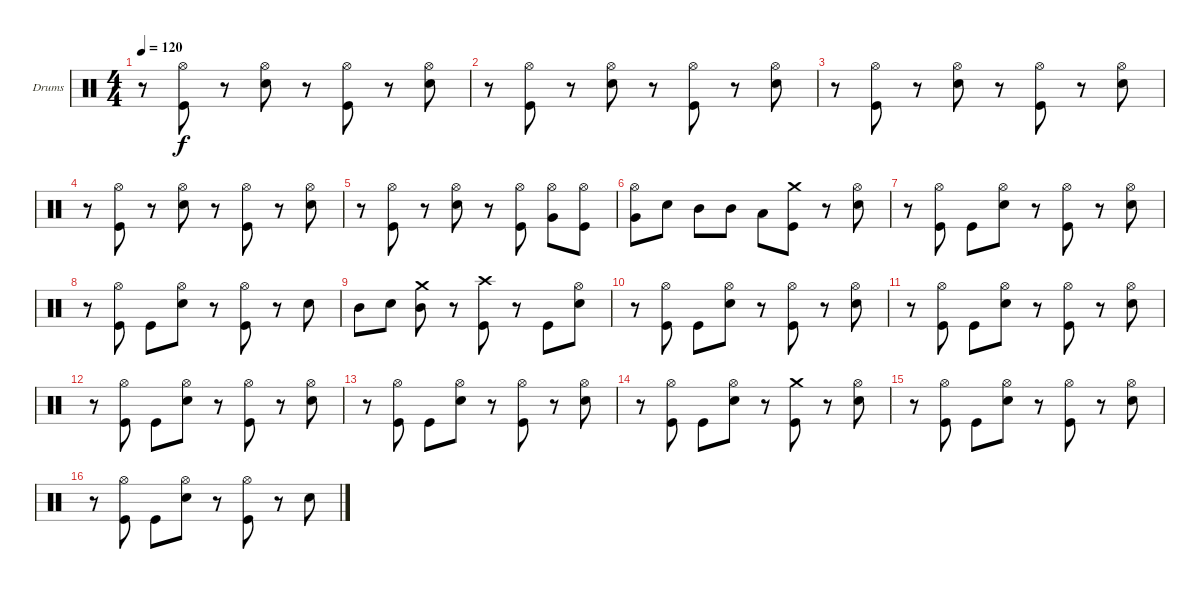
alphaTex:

\defaultSystemsLayout 4
\bracketExtendMode groupsimilarinstruments
\firstSystemTrackNameOrientation horizontal
\otherSystemsTrackNameOrientation horizontal
\track ("Drumkit" "Drums") {instrument percussion}
\staff {score}
\articulation defaults
\ts (4 4)
\tempo 120
\clef neutral
\ks c
r.8{dy f} ("Hi-Hat (open)" "Kick (hit)").8 r.8 ("Hi-Hat (open)" "Snare (hit) 2").8 r.8 ("Hi-Hat (open)" "Kick (hit)").8 r.8 ("Hi-Hat (open)" "Snare (hit) 2").8 |
r.8 ("Hi-Hat (open)" "Kick (hit)").8 r.8 ("Hi-Hat (open)" "Snare (hit) 2").8 r.8 ("Hi-Hat (open)" "Kick (hit)").8 r.8 ("Hi-Hat (open)" "Snare (hit) 2").8 |
r.8 ("Hi-Hat (open)" "Kick (hit)").8 r.8 ("Hi-Hat (open)" "Snare (hit) 2").8 r.8 ("Hi-Hat (open)" "Kick (hit)").8 r.8 ("Hi-Hat (open)" "Snare (hit) 2").8 |
r.8 ("Hi-Hat (open)" "Kick (hit)").8 r.8 ("Hi-Hat (open)" "Snare (hit) 2").8 r.8 ("Hi-Hat (open)" "Kick (hit)").8 r.8 ("Hi-Hat (open)" "Snare (hit) 2").8 |
r.8 ("Kick (hit)" "Hi-Hat (open)").8 r.8 ("Snare (hit) 2" "Hi-Hat (open)").8 r.8 ("Kick (hit)" "Hi-Hat (open)").8 ("Very Low Tom (hit)" "Hi-Hat (open)").8 ("Kick (hit)" "Hi-Hat (open)").8 |
("Very Low Tom (hit)" "Hi-Hat (open)").8 "Snare (hit) 2".8 "Mid Tom (hit)".8 "Mid Tom (hit)".8 "Low Tom (hit)".8 ("Kick (hit)" "Crash medium (hit)").8 r.8 ("Snare (hit) 2" "Hi-Hat (open)").8 |
r.8 ("Kick (hit)" "Hi-Hat (open)").8 "Kick (hit)".8 ("Snare (hit) 2" "Hi-Hat (open)").8 r.8 ("Kick (hit)" "Hi-Hat (open)").8 r.8 ("Snare (hit) 2" "Hi-Hat (open)").8 |
r.8 ("Kick (hit)" "Hi-Hat (open)").8 "Kick (hit)".8 ("Snare (hit) 2" "Hi-Hat (open)").8 r.8 ("Kick (hit)" "Hi-Hat (open)").8 r.8 "Snare (hit) 2".8 |
"Mid Tom (hit)".8 "Snare (hit) 2".8 ("Mid Tom (hit)" "Crash medium (hit)").8 r.8 ("Kick (hit)" "Crash high (hit)").8 r.8 "Kick (hit)".8 ("Snare (hit) 2" "Hi-Hat (open)").8 |
r.8 ("Kick (hit)" "Hi-Hat (open)").8 "Kick (hit)".8 ("Snare (hit) 2" "Hi-Hat (open)").8 r.8 ("Kick (hit)" "Hi-Hat (open)").8 r.8 ("Snare (hit) 2" "Hi-Hat (open)").8 |
r.8 ("Kick (hit)" "Hi-Hat (open)").8 "Kick (hit)".8 ("Snare (hit) 2" "Hi-Hat (open)").8 r.8 ("Kick (hit)" "Hi-Hat (open)").8 r.8 ("Snare (hit) 2" "Hi-Hat (open)").8 |
r.8 ("Kick (hit)" "Hi-Hat (open)").8 "Kick (hit)".8 ("Snare (hit) 2" "Hi-Hat (open)").8 r.8 ("Kick (hit)" "Hi-Hat (open)").8 r.8 ("Snare (hit) 2" "Hi-Hat (open)").8 |
r.8 ("Kick (hit)" "Hi-Hat (open)").8 "Kick (hit)".8 ("Snare (hit) 2" "Hi-Hat (open)").8 r.8 ("Kick (hit)" "Hi-Hat (open)").8 r.8 ("Snare (hit) 2" "Hi-Hat (open)").8 |
r.8 ("Kick (hit)" "Hi-Hat (open)").8 "Kick (hit)".8 ("Snare (hit) 2" "Hi-Hat (open)").8 r.8 ("Kick (hit)" "Crash medium (hit)").8 r.8 ("Snare (hit) 2" "Hi-Hat (open)").8 |
r.8 ("Kick (hit)" "Hi-Hat (open)").8 "Kick (hit)".8 ("Snare (hit) 2" "Hi-Hat (open)").8 r.8 ("Kick (hit)" "Hi-Hat (open)").8 r.8 ("Snare (hit) 2" "Hi-Hat (open)").8 |
r.8 ("Kick (hit)" "Hi-Hat (open)").8 "Kick (hit)".8 ("Snare (hit) 2" "Hi-Hat (open)").8 r.8 ("Kick (hit)" "Hi-Hat (open)").8 r.8 "Snare (hit) 2".8
